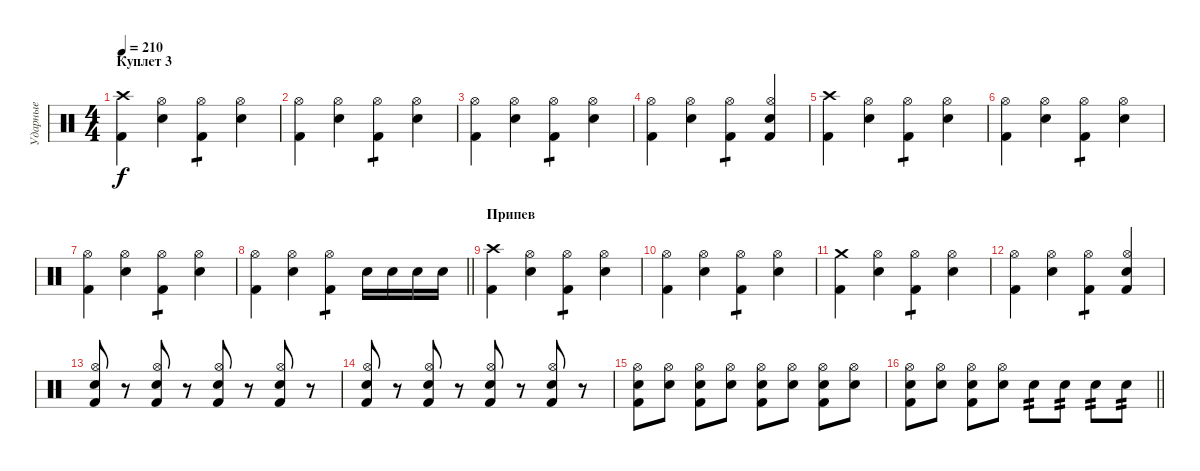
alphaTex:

\track ("Ударные" "Ударные") {instrument percussion}
\staff {score}
\articulation defaults
\ts (4 4)
\section ("" "Куплет 3")
\tempo 210
\clef neutral
\ks c
("Kick (hit) 2" "Crash high (hit)").4{dy f} ("Hi-Hat (open)" "Electric Snare (hit)").4 ("Kick (hit) 2" "Hi-Hat (open)").4{tp 1} ("Hi-Hat (open)" "Electric Snare (hit)").4 |
("Kick (hit) 2" "Hi-Hat (open)").4 ("Hi-Hat (open)" "Electric Snare (hit)").4 ("Kick (hit) 2" "Hi-Hat (open)").4{tp 1} ("Hi-Hat (open)" "Electric Snare (hit)").4 |
("Kick (hit) 2" "Hi-Hat (open)").4 ("Hi-Hat (open)" "Electric Snare (hit)").4 ("Kick (hit) 2" "Hi-Hat (open)").4{tp 1} ("Hi-Hat (open)" "Electric Snare (hit)").4 |
("Kick (hit) 2" "Hi-Hat (open)").4 ("Hi-Hat (open)" "Electric Snare (hit)").4 ("Kick (hit) 2" "Hi-Hat (open)").4{tp 1} ("Hi-Hat (open)" "Electric Snare (hit)" "Kick (hit) 2").4 |
("Kick (hit) 2" "Crash high (hit)").4 ("Hi-Hat (open)" "Electric Snare (hit)").4 ("Kick (hit) 2" "Hi-Hat (open)").4{tp 1} ("Hi-Hat (open)" "Electric Snare (hit)").4 |
("Kick (hit) 2" "Hi-Hat (open)").4 ("Hi-Hat (open)" "Electric Snare (hit)").4 ("Kick (hit) 2" "Hi-Hat (open)").4{tp 1} ("Hi-Hat (open)" "Electric Snare (hit)").4 |
("Kick (hit) 2" "Hi-Hat (open)").4 ("Hi-Hat (open)" "Electric Snare (hit)").4 ("Kick (hit) 2" "Hi-Hat (open)").4{tp 1} ("Hi-Hat (open)" "Electric Snare (hit)").4 |
\barLineRight lightlight
("Kick (hit) 2" "Hi-Hat (open)").4 ("Hi-Hat (open)" "Electric Snare (hit)").4 ("Kick (hit) 2" "Hi-Hat (open)").4{tp 1} "Electric Snare (hit)".16 "Electric Snare (hit)".16 "Electric Snare (hit)".16 "Electric Snare (hit)".16 |
\section ("" "Припев")
("Kick (hit) 2" "Crash high (hit)").4 ("Hi-Hat (open)" "Electric Snare (hit)").4 ("Kick (hit) 2" "Hi-Hat (open)").4{tp 1} ("Hi-Hat (open)" "Electric Snare (hit)").4 |
("Kick (hit) 2" "Hi-Hat (open)").4 ("Hi-Hat (open)" "Electric Snare (hit)").4 ("Kick (hit) 2" "Hi-Hat (open)").4{tp 1} ("Hi-Hat (open)" "Electric Snare (hit)").4 |
("Kick (hit) 2" "Crash medium (hit)").4 ("Hi-Hat (open)" "Electric Snare (hit)").4 ("Kick (hit) 2" "Hi-Hat (open)").4{tp 1} ("Hi-Hat (open)" "Electric Snare (hit)").4 |
("Kick (hit) 2" "Hi-Hat (open)").4 ("Hi-Hat (open)" "Electric Snare (hit)").4 ("Kick (hit) 2" "Hi-Hat (open)").4{tp 1} ("Hi-Hat (open)" "Electric Snare (hit)" "Kick (hit) 2").4 |
("Kick (hit) 2" "Hi-Hat (open)" "Electric Snare (hit)").8 r.8 ("Kick (hit) 2" "Hi-Hat (open)" "Electric Snare (hit)").8 r.8 ("Kick (hit) 2" "Hi-Hat (open)" "Electric Snare (hit)").8 r.8 ("Kick (hit) 2" "Hi-Hat (open)" "Electric Snare (hit)").8 r.8 |
("Kick (hit) 2" "Hi-Hat (open)" "Electric Snare (hit)").8 r.8 ("Kick (hit) 2" "Hi-Hat (open)" "Electric Snare (hit)").8 r.8 ("Kick (hit) 2" "Hi-Hat (open)" "Electric Snare (hit)").8 r.8 ("Kick (hit) 2" "Hi-Hat (open)" "Electric Snare (hit)").8 r.8 |
("Kick (hit) 2" "Hi-Hat (open)" "Electric Snare (hit)").8 ("Hi-Hat (open)" "Electric Snare (hit)").8 ("Kick (hit) 2" "Hi-Hat (open)" "Electric Snare (hit)").8 ("Hi-Hat (open)" "Electric Snare (hit)").8 ("Kick (hit) 2" "Hi-Hat (open)" "Electric Snare (hit)").8 ("Hi-Hat (open)" "Electric Snare (hit)").8 ("Kick (hit) 2" "Hi-Hat (open)" "Electric Snare (hit)").8 ("Hi-Hat (open)" "Electric Snare (hit)").8 |
\barLineRight lightlight
("Kick (hit) 2" "Hi-Hat (open)" "Electric Snare (hit)").8 ("Hi-Hat (open)" "Electric Snare (hit)").8 ("Kick (hit) 2" "Hi-Hat (open)" "Electric Snare (hit)").8 ("Hi-Hat (open)" "Electric Snare (hit)").8 "Electric Snare (hit)".8{tp 2} "Electric Snare (hit)".8{tp 2} "Electric Snare (hit)".8{tp 2} "Electric Snare (hit)".8{tp 2}
